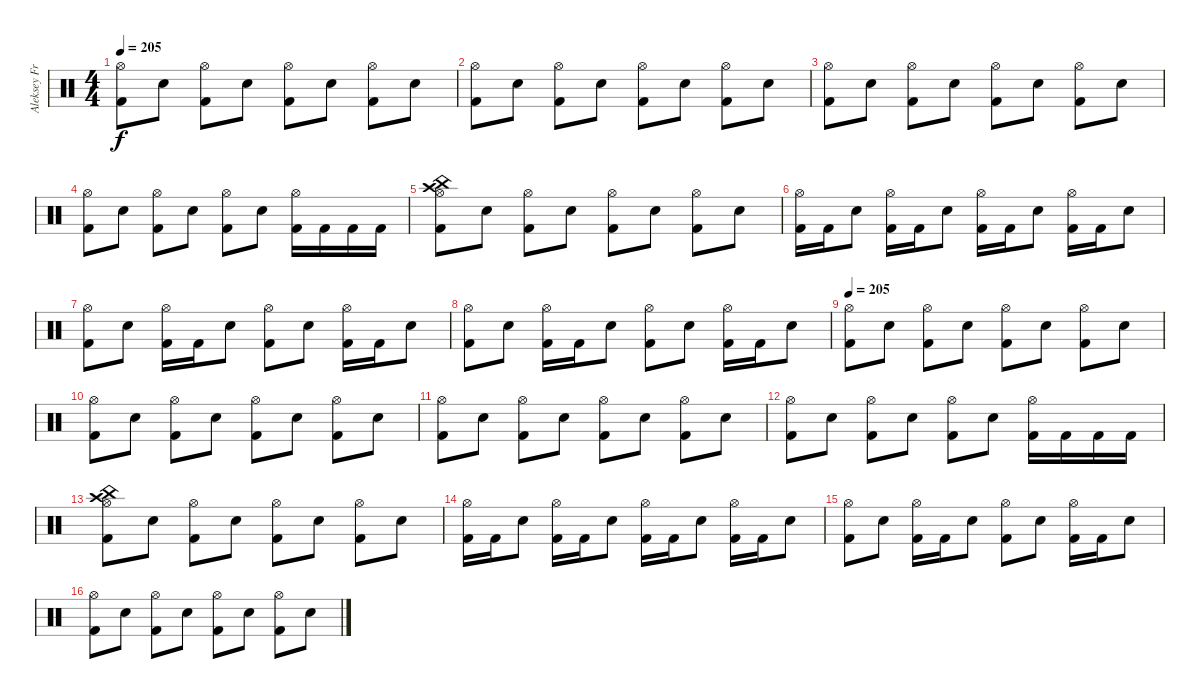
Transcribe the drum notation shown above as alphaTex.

\track ("Aleksey Frolov" "Aleksey Fr") {instrument percussion}
\staff {score}
\articulation defaults
\ts (4 4)
\tempo 205
\clef neutral
\ks c
("Kick (hit) 2" "Hi-Hat (open)").8{dy f} "Electric Snare (hit)".8 ("Kick (hit) 2" "Hi-Hat (open)").8 "Electric Snare (hit)".8 ("Kick (hit) 2" "Hi-Hat (open)").8 "Electric Snare (hit)".8 ("Kick (hit) 2" "Hi-Hat (open)").8 "Electric Snare (hit)".8 |
("Kick (hit) 2" "Hi-Hat (open)").8 "Electric Snare (hit)".8 ("Kick (hit) 2" "Hi-Hat (open)").8 "Electric Snare (hit)".8 ("Kick (hit) 2" "Hi-Hat (open)").8 "Electric Snare (hit)".8 ("Kick (hit) 2" "Hi-Hat (open)").8 "Electric Snare (hit)".8 |
("Kick (hit) 2" "Hi-Hat (open)").8 "Electric Snare (hit)".8 ("Kick (hit) 2" "Hi-Hat (open)").8 "Electric Snare (hit)".8 ("Kick (hit) 2" "Hi-Hat (open)").8 "Electric Snare (hit)".8 ("Kick (hit) 2" "Hi-Hat (open)").8 "Electric Snare (hit)".8 |
("Kick (hit) 2" "Hi-Hat (open)").8 "Electric Snare (hit)".8 ("Kick (hit) 2" "Hi-Hat (open)").8 "Electric Snare (hit)".8 ("Kick (hit) 2" "Hi-Hat (open)").8 "Electric Snare (hit)".8 ("Kick (hit) 2" "Hi-Hat (open)").16 "Kick (hit) 2".16 "Kick (hit) 2".16 "Kick (hit) 2".16 |
("Kick (hit) 2" "Hi-Hat (open)" "Crash high (hit)" "China (hit)").8 "Electric Snare (hit)".8 ("Kick (hit) 2" "Hi-Hat (open)").8 "Electric Snare (hit)".8 ("Kick (hit) 2" "Hi-Hat (open)").8 "Electric Snare (hit)".8 ("Kick (hit) 2" "Hi-Hat (open)").8 "Electric Snare (hit)".8 |
("Kick (hit) 2" "Hi-Hat (open)").16 "Kick (hit) 2".16 "Electric Snare (hit)".8 ("Kick (hit) 2" "Hi-Hat (open)").16 "Kick (hit) 2".16 "Electric Snare (hit)".8 ("Kick (hit) 2" "Hi-Hat (open)").16 "Kick (hit) 2".16 "Electric Snare (hit)".8 ("Kick (hit) 2" "Hi-Hat (open)").16 "Kick (hit) 2".16 "Electric Snare (hit)".8 |
("Kick (hit) 2" "Hi-Hat (open)").8 "Electric Snare (hit)".8 ("Kick (hit) 2" "Hi-Hat (open)").16 "Kick (hit) 2".16 "Electric Snare (hit)".8 ("Kick (hit) 2" "Hi-Hat (open)").8 "Electric Snare (hit)".8 ("Kick (hit) 2" "Hi-Hat (open)").16 "Kick (hit) 2".16 "Electric Snare (hit)".8 |
("Kick (hit) 2" "Hi-Hat (open)").8 "Electric Snare (hit)".8 ("Kick (hit) 2" "Hi-Hat (open)").16 "Kick (hit) 2".16 "Electric Snare (hit)".8 ("Kick (hit) 2" "Hi-Hat (open)").8 "Electric Snare (hit)".8 ("Kick (hit) 2" "Hi-Hat (open)").16 "Kick (hit) 2".16 "Electric Snare (hit)".8 |
\tempo 205
("Kick (hit) 2" "Hi-Hat (open)").8 "Electric Snare (hit)".8 ("Kick (hit) 2" "Hi-Hat (open)").8 "Electric Snare (hit)".8 ("Kick (hit) 2" "Hi-Hat (open)").8 "Electric Snare (hit)".8 ("Kick (hit) 2" "Hi-Hat (open)").8 "Electric Snare (hit)".8 |
("Kick (hit) 2" "Hi-Hat (open)").8 "Electric Snare (hit)".8 ("Kick (hit) 2" "Hi-Hat (open)").8 "Electric Snare (hit)".8 ("Kick (hit) 2" "Hi-Hat (open)").8 "Electric Snare (hit)".8 ("Kick (hit) 2" "Hi-Hat (open)").8 "Electric Snare (hit)".8 |
("Kick (hit) 2" "Hi-Hat (open)").8 "Electric Snare (hit)".8 ("Kick (hit) 2" "Hi-Hat (open)").8 "Electric Snare (hit)".8 ("Kick (hit) 2" "Hi-Hat (open)").8 "Electric Snare (hit)".8 ("Kick (hit) 2" "Hi-Hat (open)").8 "Electric Snare (hit)".8 |
("Kick (hit) 2" "Hi-Hat (open)").8 "Electric Snare (hit)".8 ("Kick (hit) 2" "Hi-Hat (open)").8 "Electric Snare (hit)".8 ("Kick (hit) 2" "Hi-Hat (open)").8 "Electric Snare (hit)".8 ("Kick (hit) 2" "Hi-Hat (open)").16 "Kick (hit) 2".16 "Kick (hit) 2".16 "Kick (hit) 2".16 |
("Kick (hit) 2" "Hi-Hat (open)" "Crash high (hit)" "China (hit)").8 "Electric Snare (hit)".8 ("Kick (hit) 2" "Hi-Hat (open)").8 "Electric Snare (hit)".8 ("Kick (hit) 2" "Hi-Hat (open)").8 "Electric Snare (hit)".8 ("Kick (hit) 2" "Hi-Hat (open)").8 "Electric Snare (hit)".8 |
("Kick (hit) 2" "Hi-Hat (open)").16 "Kick (hit) 2".16 "Electric Snare (hit)".8 ("Kick (hit) 2" "Hi-Hat (open)").16 "Kick (hit) 2".16 "Electric Snare (hit)".8 ("Kick (hit) 2" "Hi-Hat (open)").16 "Kick (hit) 2".16 "Electric Snare (hit)".8 ("Kick (hit) 2" "Hi-Hat (open)").16 "Kick (hit) 2".16 "Electric Snare (hit)".8 |
("Kick (hit) 2" "Hi-Hat (open)").8 "Electric Snare (hit)".8 ("Kick (hit) 2" "Hi-Hat (open)").16 "Kick (hit) 2".16 "Electric Snare (hit)".8 ("Kick (hit) 2" "Hi-Hat (open)").8 "Electric Snare (hit)".8 ("Kick (hit) 2" "Hi-Hat (open)").16 "Kick (hit) 2".16 "Electric Snare (hit)".8 |
("Kick (hit) 2" "Hi-Hat (open)").8 "Electric Snare (hit)".8 ("Kick (hit) 2" "Hi-Hat (open)").8 "Electric Snare (hit)".8 ("Kick (hit) 2" "Hi-Hat (open)").8 "Electric Snare (hit)".8 ("Kick (hit) 2" "Hi-Hat (open)").8 "Electric Snare (hit)".8
